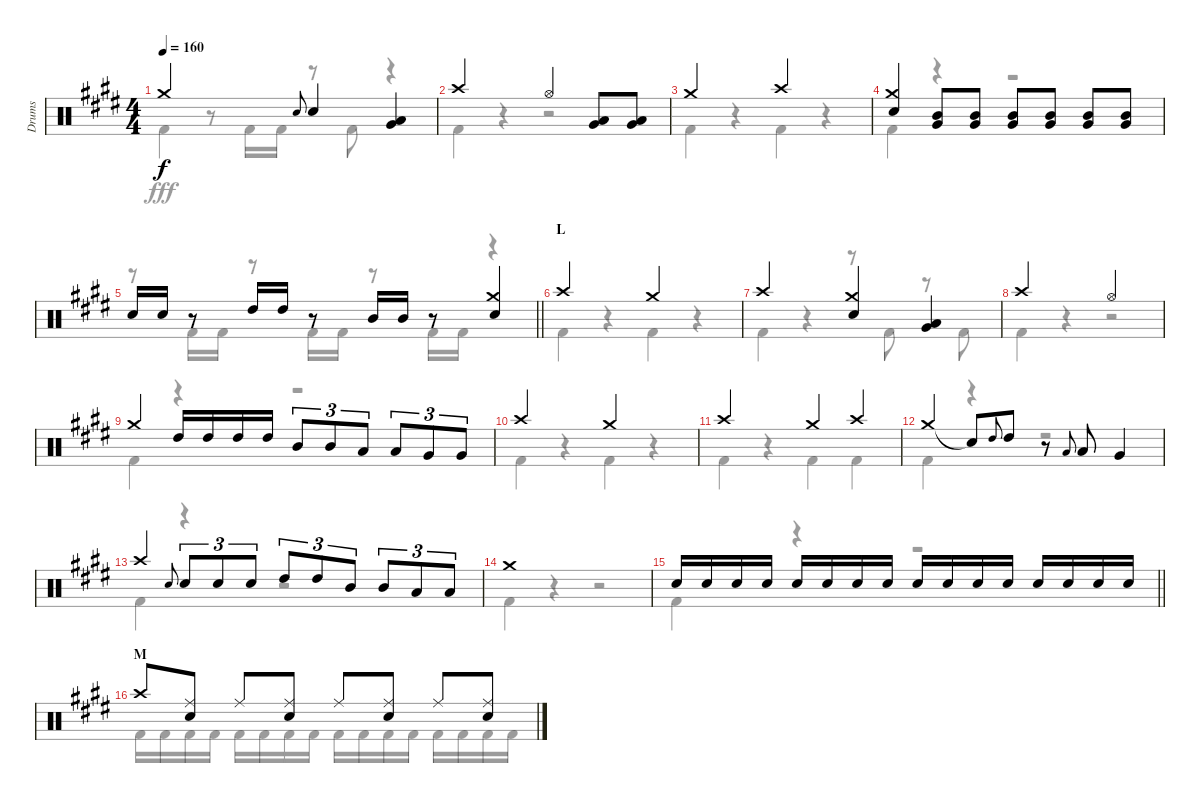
\track ("Drums" "Drums") {instrument percussion}
\staff {score}
\articulation defaults
\voice
\ts (4 4)
\tempo 160
\clef neutral
\ks e "Crash medium (hit)".2{dy f} "Snare (hit) 2".8{gr onbeat} "Snare (hit) 2".4
("Low Tom (hit)" "Very Low Tom (hit)").4 |
"Crash high (hit)".2 "Hi-Hat (open)".4 ("Low Tom (hit)" "Very Low Tom (hit)").8 ("Low Tom (hit)" "Very Low Tom (hit)").8 |
"Crash medium (hit)".2 "Crash high (hit)".2 |
("Crash medium (hit)" "Snare (hit) 2").4 ("Mid Tom (hit)" "Very Low Tom (hit)").8 ("Mid Tom (hit)" "Very Low Tom (hit)").8 ("Mid Tom (hit)" "Very Low Tom (hit)").8 ("Mid Tom (hit)" "Very Low Tom (hit)").8 ("Mid Tom (hit)" "Very Low Tom (hit)").8 ("Mid Tom (hit)" "Very Low Tom (hit)").8 |
\barLineRight lightlight "Snare (hit) 2".16 "Snare (hit) 2".16
r.8 "High Tom (hit)".16 "High Tom (hit)".16 r.8 "Mid Tom (hit)".16 "Mid Tom (hit)".16 r.8 ("Crash medium (hit)" "Snare (hit) 2").4 |
\section ("" "L")
"Crash high (hit)".2 "Crash medium (hit)".2 |
"Crash high (hit)".2 ("Crash medium (hit)" "Snare (hit) 2").4 ("Low Tom (hit)" "Very Low Tom (hit)").4 |
"Crash high (hit)".2 "Hi-Hat (open)".2 |
"Crash medium (hit)".4 "High Tom (hit)".16 "High Tom (hit)".16 "High Tom (hit)".16 "High Tom (hit)".16 "Mid Tom (hit)".8{tu (3 2)} "Mid Tom (hit)".8{tu (3 2)} "Low Tom (hit)".8{tu (3 2)} "Low Tom (hit)".8{tu (3 2)} "Very Low Tom (hit)".8{tu (3 2)} "Very Low Tom (hit)".8{tu (3 2)} |
"Crash high (hit)".2 "Crash medium (hit)".2 |
"Crash high (hit)".2 "Crash medium (hit)".4 "Crash high (hit)".4 |
"Crash medium (hit)".4 "Snare (hit)"{t}.8 "High Tom (hit)".8{gr onbeat} "High Tom (hit)".8 r.8 "Low Tom (hit)".8{gr onbeat} "Low Tom (hit)".8 "Very Low Tom (hit)".4 |
"Crash high (hit)".4 "Snare (hit) 2".8{gr onbeat} "Snare (hit) 2".8{tu (3 2)} "Snare (hit) 2".8{tu (3 2)} "Snare (hit) 2".8{tu (3 2)} "High Tom (hit)".8{tu (3 2)} "High Tom (hit)".8{tu (3 2)} "Mid Tom (hit)".8{tu (3 2)} "Mid Tom (hit)".8{tu (3 2)} "Low Tom (hit)".8{tu (3 2)} "Low Tom (hit)".8{tu (3 2)} |
"Crash medium (hit)".1 |
\barLineRight lightlight "Snare (hit) 2".16 "Snare (hit) 2".16 "Snare (hit) 2".16 "Snare (hit) 2".16 "Snare (hit) 2".16 "Snare (hit) 2".16 "Snare (hit) 2".16 "Snare (hit) 2".16 "Snare (hit) 2".16 "Snare (hit) 2".16 "Snare (hit) 2".16 "Snare (hit) 2".16 "Snare (hit) 2".16 "Snare (hit) 2".16 "Snare (hit) 2".16 "Snare (hit) 2".16
|
\section ("" "M")
"Crash high (hit)".8 ("Ride (middle)" "Snare (hit) 2").8 "Ride (middle)".8 ("Ride (middle)" "Snare (hit) 2").8 "Ride (middle)".8 ("Ride (middle)" "Snare (hit) 2").8 "Ride (middle)".8 ("Ride (middle)" "Snare (hit) 2").8
\voice
\clef neutral
\ottava regular
\simile none
\ks e "Kick (hit) 2".4{dy fff}
r.8 "Kick (hit) 2".16 "Kick (hit) 2".16 r.8 "Kick (hit) 2".8 r.4 |
"Kick (hit) 2".4 r.4 r.2 |
"Kick (hit) 2".4 r.4 "Kick (hit) 2".4 r.4 |
"Kick (hit) 2".4 r.4 r.2 |
\barLineRight lightlight
r.8 "Kick (hit) 2".16 "Kick (hit) 2".16 r.8 "Kick (hit) 2".16 "Kick (hit) 2".16 r.8 "Kick (hit) 2".16 "Kick (hit) 2".16 r.4 |
"Kick (hit) 2".4 r.4 "Kick (hit) 2".4 r.4 |
"Kick (hit) 2".4 r.4 r.8 "Kick (hit) 2".8 r.8 "Kick (hit) 2".8 |
"Kick (hit) 2".4 r.4 r.2 |
"Kick (hit) 2".4 r.4 r.2 |
"Kick (hit) 2".4 r.4 "Kick (hit) 2".4 r.4 |
"Kick (hit) 2".4 r.4 "Kick (hit) 2".4 "Kick (hit) 2".4 |
"Kick (hit) 2".4 r.4 r.2 |
"Kick (hit) 2".4 r.4 r.2 |
"Kick (hit) 2".4 r.4 r.2 |
\barLineRight lightlight "Kick (hit) 2".4
r.4 r.2 |
"Kick (hit) 2".16 "Kick (hit) 2".16 "Kick (hit) 2".16 "Kick (hit) 2".16 "Kick (hit) 2".16 "Kick (hit) 2".16 "Kick (hit) 2".16 "Kick (hit) 2".16 "Kick (hit) 2".16 "Kick (hit) 2".16 "Kick (hit) 2".16 "Kick (hit) 2".16 "Kick (hit) 2".16 "Kick (hit) 2".16 "Kick (hit) 2".16 "Kick (hit) 2".16
